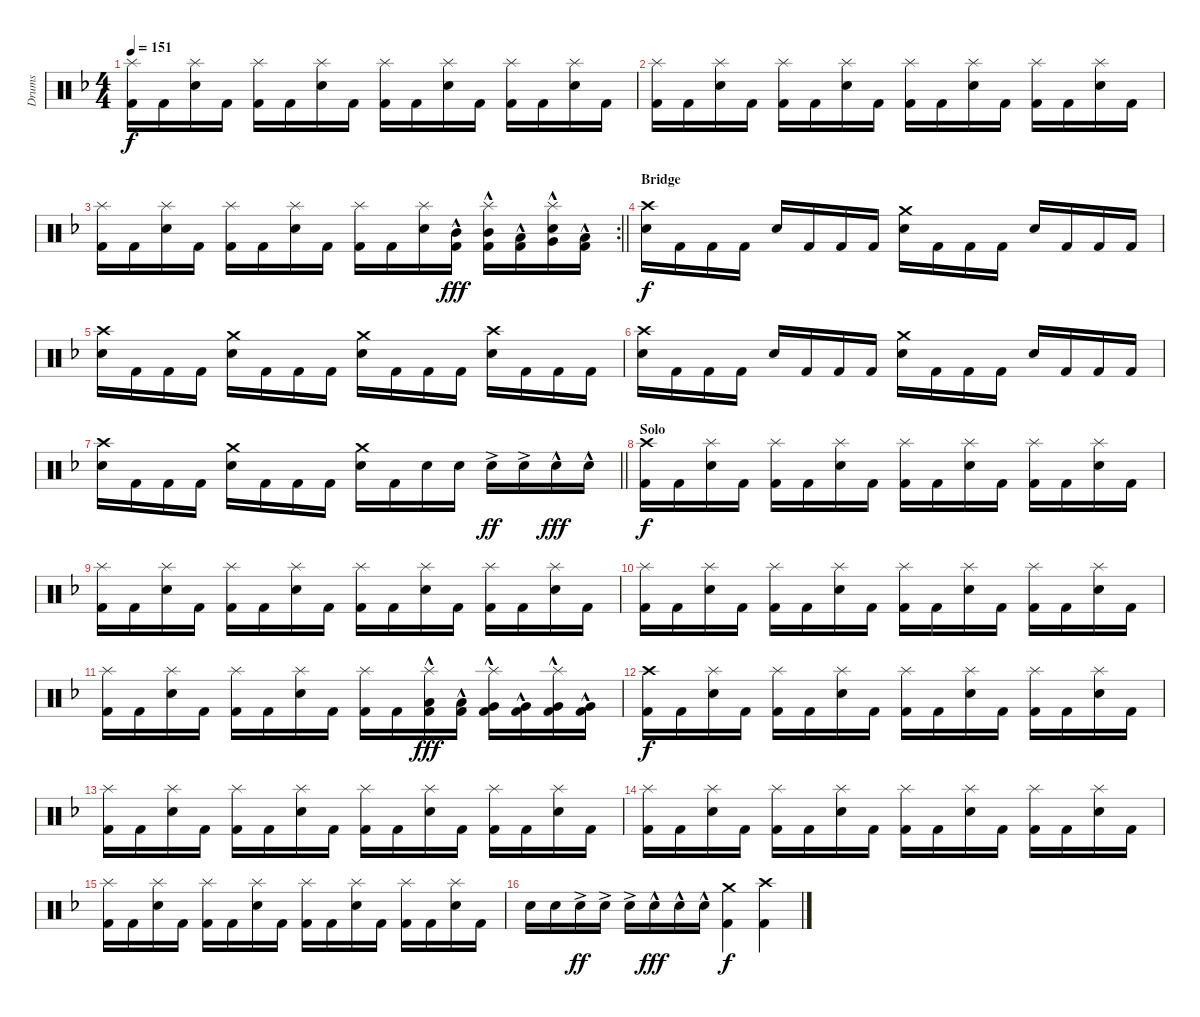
\track ("Drums" "Drums") {instrument percussion}
\staff {score}
\articulation defaults
\ts (4 4)
\tempo 151
\clef neutral
\ks dminor
("Splash (hit)" "Kick (hit) 2").16{dy f} "Kick (hit) 2".16 ("Splash (hit)" "Snare (hit) 2").16 "Kick (hit) 2".16 ("Splash (hit)" "Kick (hit) 2").16 "Kick (hit) 2".16 ("Splash (hit)" "Snare (hit) 2").16 "Kick (hit) 2".16 ("Splash (hit)" "Kick (hit) 2").16 "Kick (hit) 2".16 ("Splash (hit)" "Snare (hit) 2").16 "Kick (hit) 2".16 ("Splash (hit)" "Kick (hit) 2").16 "Kick (hit) 2".16 ("Splash (hit)" "Snare (hit) 2").16 "Kick (hit) 2".16 |
("Splash (hit)" "Kick (hit) 2").16 "Kick (hit) 2".16 ("Splash (hit)" "Snare (hit) 2").16 "Kick (hit) 2".16 ("Splash (hit)" "Kick (hit) 2").16 "Kick (hit) 2".16 ("Splash (hit)" "Snare (hit) 2").16 "Kick (hit) 2".16 ("Splash (hit)" "Kick (hit) 2").16 "Kick (hit) 2".16 ("Splash (hit)" "Snare (hit) 2").16 "Kick (hit) 2".16 ("Splash (hit)" "Kick (hit) 2").16 "Kick (hit) 2".16 ("Splash (hit)" "Snare (hit) 2").16 "Kick (hit) 2".16 |
\rc 2
\barLineRight lightlight
("Splash (hit)" "Kick (hit) 2").16 "Kick (hit) 2".16 ("Splash (hit)" "Snare (hit) 2").16 "Kick (hit) 2".16 ("Splash (hit)" "Kick (hit) 2").16 "Kick (hit) 2".16 ("Splash (hit)" "Snare (hit) 2").16 "Kick (hit) 2".16 ("Splash (hit)" "Kick (hit) 2").16 "Kick (hit) 2".16 ("Splash (hit)" "Snare (hit) 2").16 ("Mid Tom (hit)"{hac} "Kick (hit) 2").16{dy fff} ("Splash (hit)" "Mid Tom (hit)"{hac} "Kick (hit) 2").16 ("Low Tom (hit)"{hac} "Kick (hit) 2").16 ("Splash (hit)" "Snare (hit) 2" "Very Low Tom (hit)"{hac}).16 ("Low Floor Tom (hit)"{hac} "Kick (hit) 2").16 |
\section ("" "Bridge")
("Crash high (hit)" "Snare (hit) 2").16{dy f} "Kick (hit) 2".16 "Kick (hit) 2".16 "Kick (hit) 2".16 "Snare (hit) 2".16 "Kick (hit) 2".16 "Kick (hit) 2".16 "Kick (hit) 2".16 ("Crash medium (hit)" "Snare (hit) 2").16 "Kick (hit) 2".16 "Kick (hit) 2".16 "Kick (hit) 2".16 "Snare (hit) 2".16 "Kick (hit) 2".16 "Kick (hit) 2".16 "Kick (hit) 2".16 |
("Crash high (hit)" "Snare (hit) 2").16 "Kick (hit) 2".16 "Kick (hit) 2".16 "Kick (hit) 2".16 ("Crash medium (hit)" "Snare (hit) 2").16 "Kick (hit) 2".16 "Kick (hit) 2".16 "Kick (hit) 2".16 ("Crash medium (hit)" "Snare (hit) 2").16 "Kick (hit) 2".16 "Kick (hit) 2".16 "Kick (hit) 2".16 ("Crash high (hit)" "Snare (hit) 2").16 "Kick (hit) 2".16 "Kick (hit) 2".16 "Kick (hit) 2".16 |
("Crash high (hit)" "Snare (hit) 2").16 "Kick (hit) 2".16 "Kick (hit) 2".16 "Kick (hit) 2".16 "Snare (hit) 2".16 "Kick (hit) 2".16 "Kick (hit) 2".16 "Kick (hit) 2".16 ("Crash medium (hit)" "Snare (hit) 2").16 "Kick (hit) 2".16 "Kick (hit) 2".16 "Kick (hit) 2".16 "Snare (hit) 2".16 "Kick (hit) 2".16 "Kick (hit) 2".16 "Kick (hit) 2".16 |
\barLineRight lightlight
("Crash high (hit)" "Snare (hit) 2").16 "Kick (hit) 2".16 "Kick (hit) 2".16 "Kick (hit) 2".16 ("Crash medium (hit)" "Snare (hit) 2").16 "Kick (hit) 2".16 "Kick (hit) 2".16 "Kick (hit) 2".16 ("Crash medium (hit)" "Snare (hit) 2").16 "Kick (hit) 2".16 "Snare (hit) 2".16 "Snare (hit) 2".16 "Snare (hit) 2"{ac}.16{dy ff} "Snare (hit) 2"{ac}.16 "Snare (hit) 2"{hac}.16{dy fff} "Snare (hit) 2"{hac}.16 |
\section ("" "Solo")
("Crash high (hit)" "Kick (hit) 2").16{dy f} "Kick (hit) 2".16 ("Splash (hit)" "Snare (hit) 2").16 "Kick (hit) 2".16 ("Splash (hit)" "Kick (hit) 2").16 "Kick (hit) 2".16 ("Splash (hit)" "Snare (hit) 2").16 "Kick (hit) 2".16 ("Splash (hit)" "Kick (hit) 2").16 "Kick (hit) 2".16 ("Splash (hit)" "Snare (hit) 2").16 "Kick (hit) 2".16 ("Splash (hit)" "Kick (hit) 2").16 "Kick (hit) 2".16 ("Splash (hit)" "Snare (hit) 2").16 "Kick (hit) 2".16 |
("Splash (hit)" "Kick (hit) 2").16 "Kick (hit) 2".16 ("Splash (hit)" "Snare (hit) 2").16 "Kick (hit) 2".16 ("Splash (hit)" "Kick (hit) 2").16 "Kick (hit) 2".16 ("Splash (hit)" "Snare (hit) 2").16 "Kick (hit) 2".16 ("Splash (hit)" "Kick (hit) 2").16 "Kick (hit) 2".16 ("Splash (hit)" "Snare (hit) 2").16 "Kick (hit) 2".16 ("Splash (hit)" "Kick (hit) 2").16 "Kick (hit) 2".16 ("Splash (hit)" "Snare (hit) 2").16 "Kick (hit) 2".16 |
("Splash (hit)" "Kick (hit) 2").16 "Kick (hit) 2".16 ("Splash (hit)" "Snare (hit) 2").16 "Kick (hit) 2".16 ("Splash (hit)" "Kick (hit) 2").16 "Kick (hit) 2".16 ("Splash (hit)" "Snare (hit) 2").16 "Kick (hit) 2".16 ("Splash (hit)" "Kick (hit) 2").16 "Kick (hit) 2".16 ("Splash (hit)" "Snare (hit) 2").16 "Kick (hit) 2".16 ("Splash (hit)" "Kick (hit) 2").16 "Kick (hit) 2".16 ("Splash (hit)" "Snare (hit) 2").16 "Kick (hit) 2".16 |
("Splash (hit)" "Kick (hit) 2").16 "Kick (hit) 2".16 ("Splash (hit)" "Snare (hit) 2").16 "Kick (hit) 2".16 ("Splash (hit)" "Kick (hit) 2").16 "Kick (hit) 2".16 ("Splash (hit)" "Snare (hit) 2").16 "Kick (hit) 2".16 ("Splash (hit)" "Kick (hit) 2").16 "Kick (hit) 2".16 ("Splash (hit)" "Low Tom (hit)"{hac} "Kick (hit) 2").16{dy fff} ("Low Tom (hit)"{hac} "Kick (hit) 2").16 ("Splash (hit)" "Very Low Tom (hit)"{hac} "Kick (hit) 2").16 ("Very Low Tom (hit)"{hac} "Kick (hit) 2").16 ("Splash (hit)" "Very Low Tom (hit)"{hac} "Kick (hit) 2").16 ("Very Low Tom (hit)"{hac} "Kick (hit) 2").16 |
("Crash high (hit)" "Kick (hit) 2").16{dy f} "Kick (hit) 2".16 ("Splash (hit)" "Snare (hit) 2").16 "Kick (hit) 2".16 ("Splash (hit)" "Kick (hit) 2").16 "Kick (hit) 2".16 ("Splash (hit)" "Snare (hit) 2").16 "Kick (hit) 2".16 ("Splash (hit)" "Kick (hit) 2").16 "Kick (hit) 2".16 ("Splash (hit)" "Snare (hit) 2").16 "Kick (hit) 2".16 ("Splash (hit)" "Kick (hit) 2").16 "Kick (hit) 2".16 ("Splash (hit)" "Snare (hit) 2").16 "Kick (hit) 2".16 |
("Splash (hit)" "Kick (hit) 2").16 "Kick (hit) 2".16 ("Splash (hit)" "Snare (hit) 2").16 "Kick (hit) 2".16 ("Splash (hit)" "Kick (hit) 2").16 "Kick (hit) 2".16 ("Splash (hit)" "Snare (hit) 2").16 "Kick (hit) 2".16 ("Splash (hit)" "Kick (hit) 2").16 "Kick (hit) 2".16 ("Splash (hit)" "Snare (hit) 2").16 "Kick (hit) 2".16 ("Splash (hit)" "Kick (hit) 2").16 "Kick (hit) 2".16 ("Splash (hit)" "Snare (hit) 2").16 "Kick (hit) 2".16 |
("Splash (hit)" "Kick (hit) 2").16 "Kick (hit) 2".16 ("Splash (hit)" "Snare (hit) 2").16 "Kick (hit) 2".16 ("Splash (hit)" "Kick (hit) 2").16 "Kick (hit) 2".16 ("Splash (hit)" "Snare (hit) 2").16 "Kick (hit) 2".16 ("Splash (hit)" "Kick (hit) 2").16 "Kick (hit) 2".16 ("Splash (hit)" "Snare (hit) 2").16 "Kick (hit) 2".16 ("Splash (hit)" "Kick (hit) 2").16 "Kick (hit) 2".16 ("Splash (hit)" "Snare (hit) 2").16 "Kick (hit) 2".16 |
("Splash (hit)" "Kick (hit) 2").16 "Kick (hit) 2".16 ("Splash (hit)" "Snare (hit) 2").16 "Kick (hit) 2".16 ("Splash (hit)" "Kick (hit) 2").16 "Kick (hit) 2".16 ("Splash (hit)" "Snare (hit) 2").16 "Kick (hit) 2".16 ("Splash (hit)" "Kick (hit) 2").16 "Kick (hit) 2".16 ("Splash (hit)" "Snare (hit) 2").16 "Kick (hit) 2".16 ("Splash (hit)" "Kick (hit) 2").16 "Kick (hit) 2".16 ("Splash (hit)" "Snare (hit) 2").16 "Kick (hit) 2".16 |
"Snare (hit) 2".16 "Snare (hit) 2".16 "Snare (hit) 2"{ac}.16{dy ff} "Snare (hit) 2"{ac}.16 "Snare (hit) 2"{ac}.16 "Snare (hit) 2"{hac}.16{dy fff} "Snare (hit) 2"{hac}.16 "Snare (hit) 2"{hac}.16 ("Crash medium (hit)" "Kick (hit) 2").4{dy f} ("Crash high (hit)" "Kick (hit) 2").4
